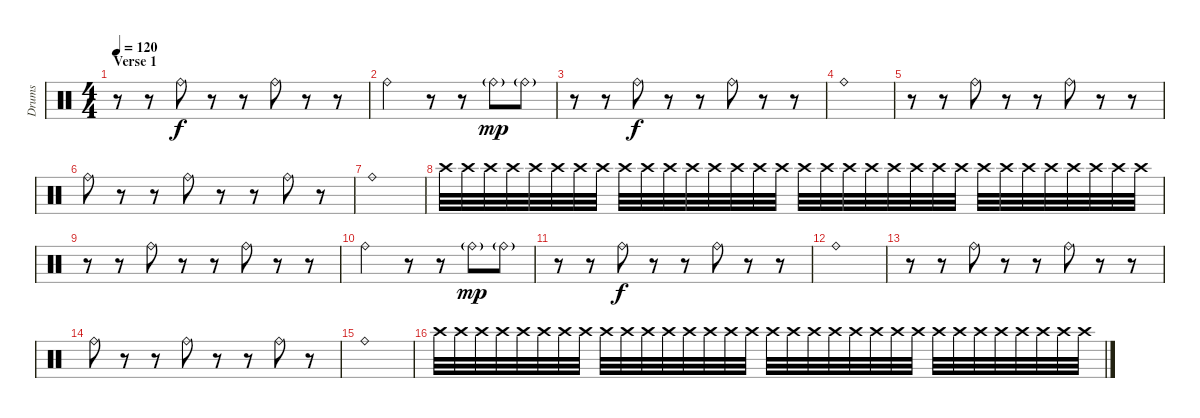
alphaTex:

\track ("Drums" "Drums") {instrument percussion}
\staff {score}
\articulation defaults
\ts (4 4)
\section ("" "Verse 1")
\tempo 120
\clef neutral
\ks c
r.8{dy f} r.8 "Ride (bell)".8{volume 10 balance 16} r.8 r.8 "Ride (bell)".8{balance 8} r.8 r.8 |
"Ride (bell)".2{balance 0} r.8 r.8 "Ride (bell)"{g}.8{dy mp} "Ride (bell)"{g}.8 |
r.8 r.8 "Ride (bell)".8{dy f balance 16} r.8 r.8 "Ride (bell)".8{balance 8} r.8 r.8 |
"Ride (bell)".1{balance 0} |
r.8 r.8 "Ride (bell)".8{balance 12} r.8 r.8 "Ride (bell)".8{balance 16} r.8 r.8 |
"Ride (bell)".8{balance 12} r.8 r.8 "Ride (bell)".8{balance 8} r.8 r.8 "Ride (bell)".8{balance 4} r.8 |
"Ride (bell)".1{volume 0 balance 0} |
"Crash high (hit)".32{volume 4 balance 8} "Crash high (hit)".32 "Crash high (hit)".32 "Crash high (hit)".32 "Crash high (hit)".32 "Crash high (hit)".32 "Crash high (hit)".32 "Crash high (hit)".32 "Crash high (hit)".32 "Crash high (hit)".32 "Crash high (hit)".32 "Crash high (hit)".32 "Crash high (hit)".32 "Crash high (hit)".32 "Crash high (hit)".32 "Crash high (hit)".32 "Crash high (hit)".32 "Crash high (hit)".32 "Crash high (hit)".32 "Crash high (hit)".32 "Crash high (hit)".32 "Crash high (hit)".32 "Crash high (hit)".32 "Crash high (hit)".32 "Crash high (hit)".32 "Crash high (hit)".32 "Crash high (hit)".32 "Crash high (hit)".32 "Crash high (hit)".32 "Crash high (hit)".32 "Crash high (hit)".32 "Crash high (hit)".32 |
r.8 r.8 "Ride (bell)".8{volume 10 balance 16} r.8 r.8 "Ride (bell)".8{balance 8} r.8 r.8 |
"Ride (bell)".2{balance 0} r.8 r.8 "Ride (bell)"{g}.8{dy mp} "Ride (bell)"{g}.8 |
r.8 r.8 "Ride (bell)".8{dy f balance 16} r.8 r.8 "Ride (bell)".8{balance 8} r.8 r.8 |
"Ride (bell)".1{balance 0} |
r.8 r.8 "Ride (bell)".8{balance 12} r.8 r.8 "Ride (bell)".8{balance 16} r.8 r.8 |
"Ride (bell)".8{balance 12} r.8 r.8 "Ride (bell)".8{balance 8} r.8 r.8 "Ride (bell)".8{balance 4} r.8 |
"Ride (bell)".1{volume 0 balance 0} |
"Crash high (hit)".32{volume 4 balance 8} "Crash high (hit)".32 "Crash high (hit)".32 "Crash high (hit)".32 "Crash high (hit)".32 "Crash high (hit)".32 "Crash high (hit)".32 "Crash high (hit)".32 "Crash high (hit)".32 "Crash high (hit)".32 "Crash high (hit)".32 "Crash high (hit)".32 "Crash high (hit)".32 "Crash high (hit)".32 "Crash high (hit)".32 "Crash high (hit)".32 "Crash high (hit)".32 "Crash high (hit)".32 "Crash high (hit)".32 "Crash high (hit)".32 "Crash high (hit)".32 "Crash high (hit)".32 "Crash high (hit)".32 "Crash high (hit)".32 "Crash high (hit)".32 "Crash high (hit)".32 "Crash high (hit)".32 "Crash high (hit)".32 "Crash high (hit)".32 "Crash high (hit)".32 "Crash high (hit)".32 "Crash high (hit)".32
